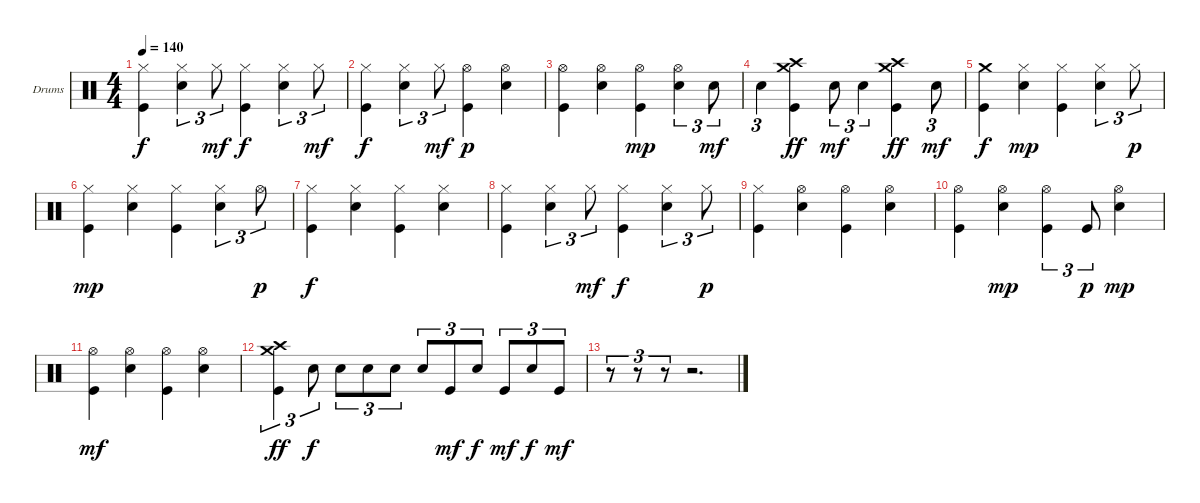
\defaultSystemsLayout 4
\bracketExtendMode groupsimilarinstruments
\firstSystemTrackNameOrientation horizontal
\otherSystemsTrackNameOrientation horizontal
\track ("Drumkit" "Drums") {instrument percussion}
\staff {score}
\articulation defaults
\ts (4 4)
\tempo 140
\clef neutral
\ks c
("Hi-Hat (closed)" "Kick (hit)").4{dy f} ("Hi-Hat (closed)" "Snare (hit) 2").4{tu (3 2)} "Hi-Hat (closed)".8{tu (3 2) dy mf} ("Hi-Hat (closed)" "Kick (hit)").4{dy f} ("Hi-Hat (closed)" "Snare (hit) 2").4{tu (3 2)} "Hi-Hat (closed)".8{tu (3 2) dy mf} |
("Hi-Hat (closed)" "Kick (hit)").4{dy f} ("Hi-Hat (closed)" "Snare (hit) 2").4{tu (3 2)} "Hi-Hat (closed)".8{tu (3 2) dy mf} ("Hi-Hat (open)" "Kick (hit)").4{dy p} ("Hi-Hat (open)" "Snare (hit) 2").4 |
("Hi-Hat (open)" "Kick (hit)").4 ("Hi-Hat (open)" "Snare (hit) 2").4 ("Hi-Hat (open)" "Kick (hit)").4{dy mp} ("Hi-Hat (open)" "Snare (hit) 2").4{tu (3 2)} "Snare (hit) 2".8{tu (3 2) dy mf} |
"Snare (hit) 2".4{tu (3 2)} ("Crash medium (hit)" "Crash high (hit)" "Kick (hit)").4{dy ff} "Snare (hit) 2".8{tu (3 2) dy mf} "Snare (hit) 2".4{tu (3 2)} ("Crash medium (hit)" "Crash high (hit)" "Kick (hit)").4{dy ff} "Snare (hit) 2".8{tu (3 2) dy mf} |
("Crash medium (hit)" "Kick (hit)").4{dy f} ("Hi-Hat (closed)" "Snare (hit) 2").4{dy mp} ("Hi-Hat (closed)" "Kick (hit)").4 ("Hi-Hat (closed)" "Snare (hit) 2").4{tu (3 2)} "Hi-Hat (closed)".8{tu (3 2) dy p} |
("Hi-Hat (closed)" "Kick (hit)").4{dy mp} ("Hi-Hat (closed)" "Snare (hit) 2").4 ("Hi-Hat (closed)" "Kick (hit)").4 ("Hi-Hat (closed)" "Snare (hit) 2").4{tu (3 2)} "Hi-Hat (open)".8{tu (3 2) dy p} |
("Hi-Hat (closed)" "Kick (hit)").4{dy f} ("Hi-Hat (closed)" "Snare (hit) 2").4 ("Hi-Hat (closed)" "Kick (hit)").4 ("Hi-Hat (closed)" "Snare (hit) 2").4 |
("Hi-Hat (closed)" "Kick (hit)").4 ("Hi-Hat (closed)" "Snare (hit) 2").4{tu (3 2)} "Hi-Hat (closed)".8{tu (3 2) dy mf} ("Hi-Hat (closed)" "Kick (hit)").4{dy f} ("Hi-Hat (closed)" "Snare (hit) 2").4{tu (3 2)} "Hi-Hat (closed)".8{tu (3 2) dy p} |
("Hi-Hat (closed)" "Kick (hit)").4 ("Hi-Hat (open)" "Snare (hit) 2").4 ("Hi-Hat (open)" "Kick (hit)").4 ("Hi-Hat (open)" "Snare (hit) 2").4 |
("Hi-Hat (open)" "Kick (hit)").4 ("Hi-Hat (open)" "Snare (hit) 2").4{dy mp} ("Hi-Hat (open)" "Kick (hit)").4{tu (3 2)} "Kick (hit)".8{tu (3 2) dy p} ("Hi-Hat (open)" "Snare (hit) 2").4{dy mp} |
("Hi-Hat (open)" "Kick (hit)").4{dy mf} ("Hi-Hat (open)" "Snare (hit) 2").4 ("Hi-Hat (open)" "Kick (hit)").4 ("Hi-Hat (open)" "Snare (hit) 2").4 |
("Crash medium (hit)" "Crash high (hit)" "Kick (hit)").4{tu (3 2) dy ff} "Snare (hit) 2".8{tu (3 2) dy f} "Snare (hit) 2".8{tu (3 2)} "Snare (hit) 2".8{tu (3 2)} "Snare (hit) 2".8{tu (3 2)} "Snare (hit) 2".8{tu (3 2)} "Kick (hit)".8{tu (3 2) dy mf} "Snare (hit) 2".8{tu (3 2) dy f} "Kick (hit)".8{tu (3 2) dy mf} "Snare (hit) 2".8{tu (3 2) dy f} "Kick (hit)".8{tu (3 2) dy mf} |
r.8{tu (3 2)} r.8{tu (3 2)} r.8{tu (3 2)} r.2{d}
